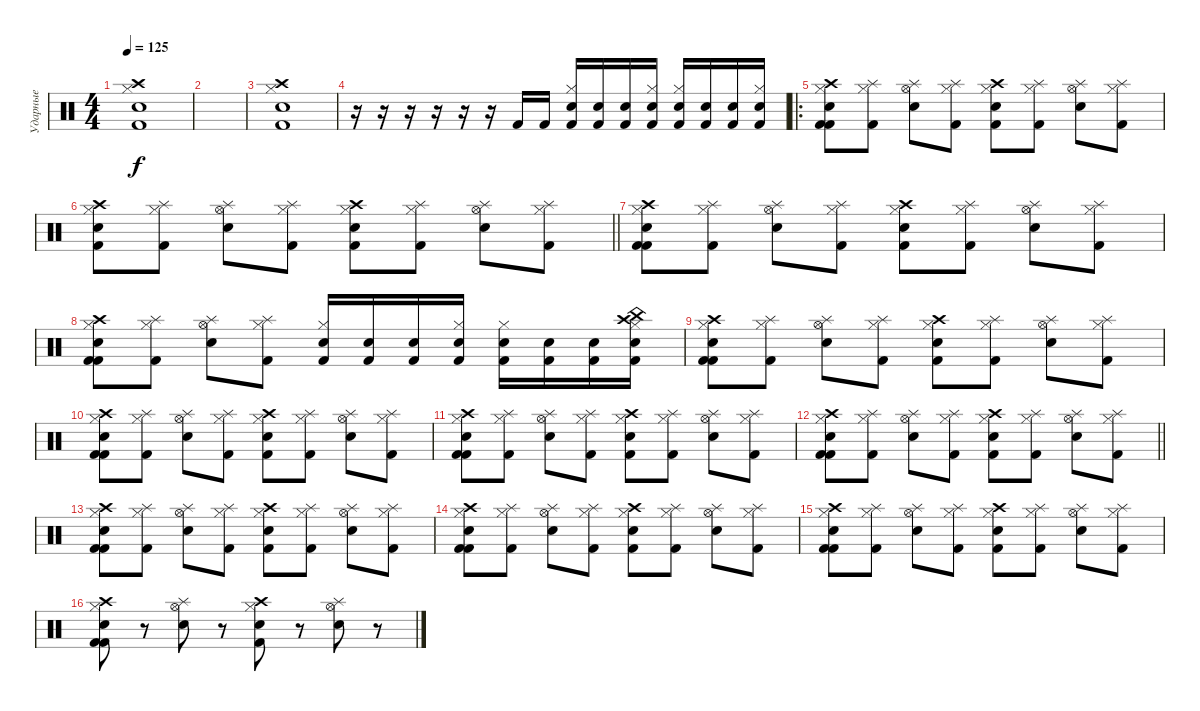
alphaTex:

\track ("Ударные" "Ударные") {instrument percussion}
\staff {score}
\articulation defaults
\ts (4 4)
\tempo 125
\clef neutral
\ks c
("Kick (hit) 2" "Hi-Hat (closed)" "Snare (hit) 2" "Crash high (hit)").1{dy f} |
|
("Kick (hit) 2" "Hi-Hat (closed)" "Snare (hit) 2" "Crash high (hit)").1 |
r.16 r.16 r.16 r.16 r.16 r.16 "Kick (hit) 2".16 "Kick (hit) 2".16 ("Hi-Hat (closed)" "Snare (hit) 2" "Kick (hit) 2").16 ("Snare (hit) 2" "Kick (hit) 2").16 ("Snare (hit) 2" "Kick (hit) 2").16 ("Hi-Hat (closed)" "Snare (hit) 2" "Kick (hit) 2").16 ("Hi-Hat (closed)" "Snare (hit) 2" "Kick (hit) 2").16 ("Snare (hit) 2" "Kick (hit) 2").16 ("Snare (hit) 2" "Kick (hit) 2").16 ("Hi-Hat (closed)" "Snare (hit) 2" "Kick (hit) 2").16 |
\ro
("Kick (hit) 2" "Hi-Hat (closed)" "Snare (hit) 2" "Crash high (hit)" "Kick (hit) 2").8 ("Kick (hit) 2" "Hi-Hat (closed)" "Splash (hit)").8 ("Electric Snare (hit)" "Hi-Hat (open)" "Splash (hit)").8 ("Kick (hit) 2" "Hi-Hat (closed)" "Splash (hit)").8 ("Kick (hit) 2" "Hi-Hat (closed)" "Snare (hit) 2" "Crash high (hit)").8 ("Kick (hit) 2" "Hi-Hat (closed)" "Splash (hit)").8 ("Electric Snare (hit)" "Hi-Hat (open)" "Splash (hit)").8 ("Kick (hit) 2" "Hi-Hat (closed)" "Splash (hit)").8 |
\barLineRight lightlight
("Kick (hit) 2" "Hi-Hat (closed)" "Snare (hit) 2" "Crash high (hit)").8 ("Kick (hit) 2" "Hi-Hat (closed)" "Splash (hit)").8 ("Electric Snare (hit)" "Hi-Hat (open)" "Splash (hit)").8 ("Kick (hit) 2" "Hi-Hat (closed)" "Splash (hit)").8 ("Kick (hit) 2" "Hi-Hat (closed)" "Snare (hit) 2" "Crash high (hit)").8 ("Kick (hit) 2" "Hi-Hat (closed)" "Splash (hit)").8 ("Electric Snare (hit)" "Hi-Hat (open)" "Splash (hit)").8 ("Kick (hit) 2" "Hi-Hat (closed)" "Splash (hit)").8 |
("Kick (hit) 2" "Hi-Hat (closed)" "Snare (hit) 2" "Crash high (hit)" "Kick (hit) 2").8 ("Kick (hit) 2" "Hi-Hat (closed)" "Splash (hit)").8 ("Electric Snare (hit)" "Hi-Hat (open)" "Splash (hit)").8 ("Kick (hit) 2" "Hi-Hat (closed)" "Splash (hit)").8 ("Kick (hit) 2" "Hi-Hat (closed)" "Snare (hit) 2" "Crash high (hit)").8 ("Kick (hit) 2" "Hi-Hat (closed)" "Splash (hit)").8 ("Electric Snare (hit)" "Hi-Hat (open)" "Splash (hit)").8 ("Kick (hit) 2" "Hi-Hat (closed)" "Splash (hit)").8 |
("Kick (hit) 2" "Hi-Hat (closed)" "Snare (hit) 2" "Crash high (hit)" "Kick (hit) 2").8 ("Kick (hit) 2" "Hi-Hat (closed)" "Splash (hit)").8 ("Electric Snare (hit)" "Hi-Hat (open)" "Splash (hit)").8 ("Kick (hit) 2" "Hi-Hat (closed)" "Splash (hit)").8 ("Hi-Hat (closed)" "Kick (hit) 2" "Snare (hit) 2").16 ("Kick (hit) 2" "Snare (hit) 2").16 ("Kick (hit) 2" "Snare (hit) 2").16 ("Hi-Hat (closed)" "Kick (hit) 2" "Snare (hit) 2").16 ("Hi-Hat (closed)" "Kick (hit) 2" "Snare (hit) 2").16 ("Kick (hit) 2" "Snare (hit) 2").16 ("Kick (hit) 2" "Snare (hit) 2").16 ("Crash high (hit)" "Hi-Hat (closed)" "Kick (hit) 2" "Snare (hit) 2" "China (hit)").16 |
("Kick (hit) 2" "Hi-Hat (closed)" "Snare (hit) 2" "Crash high (hit)" "Kick (hit) 2").8 ("Kick (hit) 2" "Hi-Hat (closed)" "Splash (hit)").8 ("Electric Snare (hit)" "Hi-Hat (open)" "Splash (hit)").8 ("Kick (hit) 2" "Hi-Hat (closed)" "Splash (hit)").8 ("Kick (hit) 2" "Hi-Hat (closed)" "Snare (hit) 2" "Crash high (hit)").8 ("Kick (hit) 2" "Hi-Hat (closed)" "Splash (hit)").8 ("Electric Snare (hit)" "Hi-Hat (open)" "Splash (hit)").8 ("Kick (hit) 2" "Hi-Hat (closed)" "Splash (hit)").8 |
("Kick (hit) 2" "Hi-Hat (closed)" "Snare (hit) 2" "Crash high (hit)" "Kick (hit) 2").8 ("Kick (hit) 2" "Hi-Hat (closed)" "Splash (hit)").8 ("Electric Snare (hit)" "Hi-Hat (open)" "Splash (hit)").8 ("Kick (hit) 2" "Hi-Hat (closed)" "Splash (hit)").8 ("Kick (hit) 2" "Hi-Hat (closed)" "Snare (hit) 2" "Crash high (hit)").8 ("Kick (hit) 2" "Hi-Hat (closed)" "Splash (hit)").8 ("Electric Snare (hit)" "Hi-Hat (open)" "Splash (hit)").8 ("Kick (hit) 2" "Hi-Hat (closed)" "Splash (hit)").8 |
("Kick (hit) 2" "Hi-Hat (closed)" "Snare (hit) 2" "Crash high (hit)" "Kick (hit) 2").8 ("Kick (hit) 2" "Hi-Hat (closed)" "Splash (hit)").8 ("Electric Snare (hit)" "Hi-Hat (open)" "Splash (hit)").8 ("Kick (hit) 2" "Hi-Hat (closed)" "Splash (hit)").8 ("Kick (hit) 2" "Hi-Hat (closed)" "Snare (hit) 2" "Crash high (hit)").8 ("Kick (hit) 2" "Hi-Hat (closed)" "Splash (hit)").8 ("Electric Snare (hit)" "Hi-Hat (open)" "Splash (hit)").8 ("Kick (hit) 2" "Hi-Hat (closed)" "Splash (hit)").8 |
\barLineRight lightlight
("Kick (hit) 2" "Hi-Hat (closed)" "Snare (hit) 2" "Crash high (hit)" "Kick (hit) 2").8 ("Kick (hit) 2" "Hi-Hat (closed)" "Splash (hit)").8 ("Electric Snare (hit)" "Hi-Hat (open)" "Splash (hit)").8 ("Kick (hit) 2" "Hi-Hat (closed)" "Splash (hit)").8 ("Kick (hit) 2" "Hi-Hat (closed)" "Snare (hit) 2" "Crash high (hit)").8 ("Kick (hit) 2" "Hi-Hat (closed)" "Splash (hit)").8 ("Electric Snare (hit)" "Hi-Hat (open)" "Splash (hit)").8 ("Kick (hit) 2" "Hi-Hat (closed)" "Splash (hit)").8 |
("Kick (hit) 2" "Hi-Hat (closed)" "Snare (hit) 2" "Crash high (hit)" "Kick (hit) 2").8 ("Kick (hit) 2" "Hi-Hat (closed)" "Splash (hit)").8 ("Electric Snare (hit)" "Hi-Hat (open)" "Splash (hit)").8 ("Kick (hit) 2" "Hi-Hat (closed)" "Splash (hit)").8 ("Kick (hit) 2" "Hi-Hat (closed)" "Snare (hit) 2" "Crash high (hit)").8 ("Kick (hit) 2" "Hi-Hat (closed)" "Splash (hit)").8 ("Electric Snare (hit)" "Hi-Hat (open)" "Splash (hit)").8 ("Kick (hit) 2" "Hi-Hat (closed)" "Splash (hit)").8 |
("Kick (hit) 2" "Hi-Hat (closed)" "Snare (hit) 2" "Crash high (hit)" "Kick (hit) 2").8 ("Kick (hit) 2" "Hi-Hat (closed)" "Splash (hit)").8 ("Electric Snare (hit)" "Hi-Hat (open)" "Splash (hit)").8 ("Kick (hit) 2" "Hi-Hat (closed)" "Splash (hit)").8 ("Kick (hit) 2" "Hi-Hat (closed)" "Snare (hit) 2" "Crash high (hit)").8 ("Kick (hit) 2" "Hi-Hat (closed)" "Splash (hit)").8 ("Electric Snare (hit)" "Hi-Hat (open)" "Splash (hit)").8 ("Kick (hit) 2" "Hi-Hat (closed)" "Splash (hit)").8 |
("Kick (hit) 2" "Hi-Hat (closed)" "Snare (hit) 2" "Crash high (hit)" "Kick (hit) 2").8 ("Kick (hit) 2" "Hi-Hat (closed)" "Splash (hit)").8 ("Electric Snare (hit)" "Hi-Hat (open)" "Splash (hit)").8 ("Kick (hit) 2" "Hi-Hat (closed)" "Splash (hit)").8 ("Kick (hit) 2" "Hi-Hat (closed)" "Snare (hit) 2" "Crash high (hit)").8 ("Kick (hit) 2" "Hi-Hat (closed)" "Splash (hit)").8 ("Electric Snare (hit)" "Hi-Hat (open)" "Splash (hit)").8 ("Kick (hit) 2" "Hi-Hat (closed)" "Splash (hit)").8 |
("Kick (hit) 2" "Hi-Hat (closed)" "Snare (hit) 2" "Crash high (hit)" "Kick (hit) 2").8 r.8 ("Electric Snare (hit)" "Hi-Hat (open)" "Splash (hit)").8 r.8 ("Kick (hit) 2" "Hi-Hat (closed)" "Snare (hit) 2" "Crash high (hit)").8 r.8 ("Electric Snare (hit)" "Hi-Hat (open)" "Splash (hit)").8 r.8
